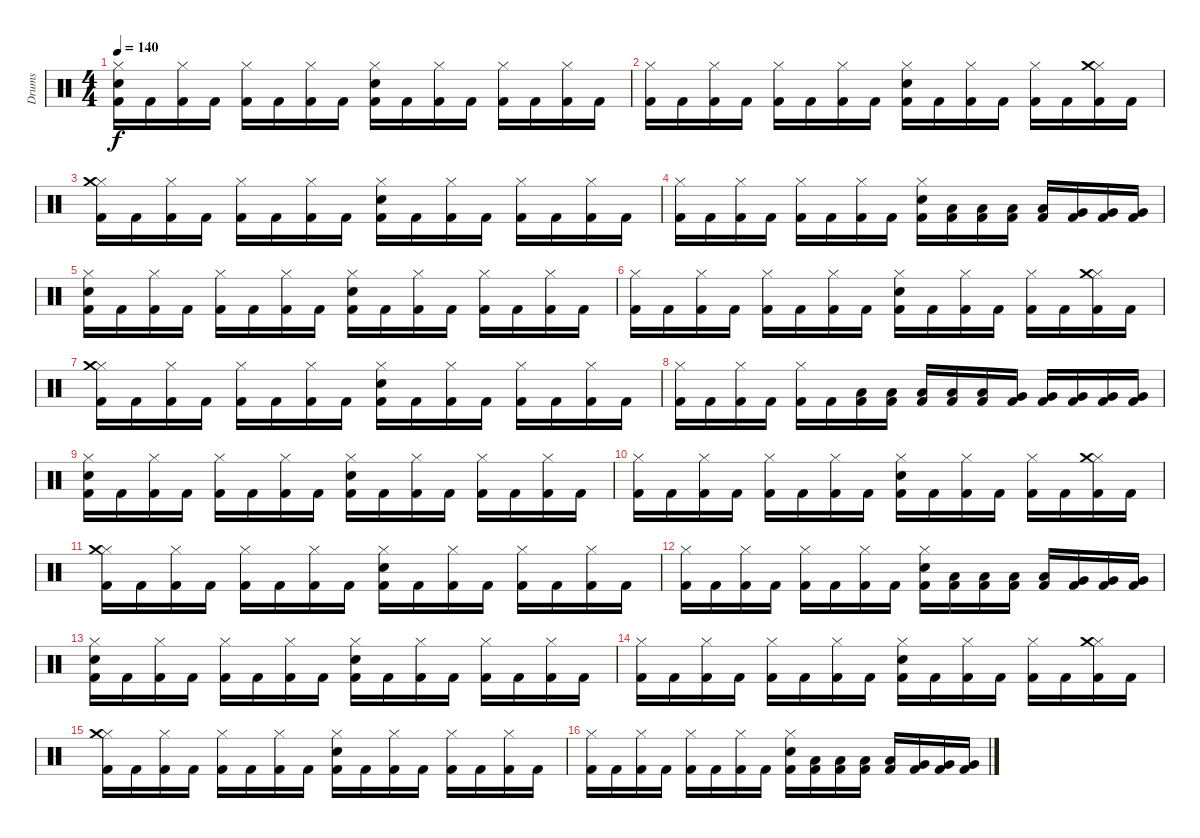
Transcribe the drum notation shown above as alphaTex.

\track ("Drums" "Drums") {instrument percussion}
\staff {score}
\articulation defaults
\ts (4 4)
\tempo 140
\clef neutral
\ks c
("Hi-Hat (closed)" "Snare (hit) 2" "Kick (hit) 2").16{dy f} "Kick (hit) 2".16 ("Hi-Hat (closed)" "Kick (hit) 2").16 "Kick (hit) 2".16 ("Hi-Hat (closed)" "Kick (hit) 2").16 "Kick (hit) 2".16 ("Hi-Hat (closed)" "Kick (hit) 2").16 "Kick (hit) 2".16 ("Hi-Hat (closed)" "Snare (hit) 2" "Kick (hit) 2").16 "Kick (hit) 2".16 ("Hi-Hat (closed)" "Kick (hit) 2").16 "Kick (hit) 2".16 ("Hi-Hat (closed)" "Kick (hit) 2").16 "Kick (hit) 2".16 ("Hi-Hat (closed)" "Kick (hit) 2").16 "Kick (hit) 2".16 |
("Hi-Hat (closed)" "Kick (hit) 2").16 "Kick (hit) 2".16 ("Hi-Hat (closed)" "Kick (hit) 2").16 "Kick (hit) 2".16 ("Hi-Hat (closed)" "Kick (hit) 2").16 "Kick (hit) 2".16 ("Hi-Hat (closed)" "Kick (hit) 2").16 "Kick (hit) 2".16 ("Hi-Hat (closed)" "Snare (hit) 2" "Kick (hit) 2").16 "Kick (hit) 2".16 ("Hi-Hat (closed)" "Kick (hit) 2").16 "Kick (hit) 2".16 ("Hi-Hat (closed)" "Kick (hit) 2").16 "Kick (hit) 2".16 ("Hi-Hat (closed)" "Crash medium (hit)" "Kick (hit) 2").16 "Kick (hit) 2".16 |
("Hi-Hat (closed)" "Crash medium (hit)" "Kick (hit) 2").16 "Kick (hit) 2".16 ("Hi-Hat (closed)" "Kick (hit) 2").16 "Kick (hit) 2".16 ("Hi-Hat (closed)" "Kick (hit) 2").16 "Kick (hit) 2".16 ("Hi-Hat (closed)" "Kick (hit) 2").16 "Kick (hit) 2".16 ("Hi-Hat (closed)" "Snare (hit) 2" "Kick (hit) 2").16 "Kick (hit) 2".16 ("Hi-Hat (closed)" "Kick (hit) 2").16 "Kick (hit) 2".16 ("Hi-Hat (closed)" "Kick (hit) 2").16 "Kick (hit) 2".16 ("Hi-Hat (closed)" "Kick (hit) 2").16 "Kick (hit) 2".16 |
("Hi-Hat (closed)" "Kick (hit) 2").16 "Kick (hit) 2".16 ("Hi-Hat (closed)" "Kick (hit) 2").16 "Kick (hit) 2".16 ("Hi-Hat (closed)" "Kick (hit) 2").16 "Kick (hit) 2".16 ("Hi-Hat (closed)" "Kick (hit) 2").16 "Kick (hit) 2".16 ("Hi-Hat (closed)" "Snare (hit) 2" "Kick (hit) 2").16 ("Low Floor Tom (hit)" "Kick (hit) 2").16 ("Low Floor Tom (hit)" "Kick (hit) 2").16 ("Low Floor Tom (hit)" "Kick (hit) 2").16 ("Low Floor Tom (hit)" "Kick (hit) 2").16 ("Very Low Tom (hit)" "Kick (hit) 2").16 ("Very Low Tom (hit)" "Kick (hit) 2").16 ("Very Low Tom (hit)" "Kick (hit) 2").16 |
("Hi-Hat (closed)" "Snare (hit) 2" "Kick (hit) 2").16 "Kick (hit) 2".16 ("Hi-Hat (closed)" "Kick (hit) 2").16 "Kick (hit) 2".16 ("Hi-Hat (closed)" "Kick (hit) 2").16 "Kick (hit) 2".16 ("Hi-Hat (closed)" "Kick (hit) 2").16 "Kick (hit) 2".16 ("Hi-Hat (closed)" "Snare (hit) 2" "Kick (hit) 2").16 "Kick (hit) 2".16 ("Hi-Hat (closed)" "Kick (hit) 2").16 "Kick (hit) 2".16 ("Hi-Hat (closed)" "Kick (hit) 2").16 "Kick (hit) 2".16 ("Hi-Hat (closed)" "Kick (hit) 2").16 "Kick (hit) 2".16 |
("Hi-Hat (closed)" "Kick (hit) 2").16 "Kick (hit) 2".16 ("Hi-Hat (closed)" "Kick (hit) 2").16 "Kick (hit) 2".16 ("Hi-Hat (closed)" "Kick (hit) 2").16 "Kick (hit) 2".16 ("Hi-Hat (closed)" "Kick (hit) 2").16 "Kick (hit) 2".16 ("Hi-Hat (closed)" "Snare (hit) 2" "Kick (hit) 2").16 "Kick (hit) 2".16 ("Hi-Hat (closed)" "Kick (hit) 2").16 "Kick (hit) 2".16 ("Hi-Hat (closed)" "Kick (hit) 2").16 "Kick (hit) 2".16 ("Hi-Hat (closed)" "Crash medium (hit)" "Kick (hit) 2").16 "Kick (hit) 2".16 |
("Hi-Hat (closed)" "Crash medium (hit)" "Kick (hit) 2").16 "Kick (hit) 2".16 ("Hi-Hat (closed)" "Kick (hit) 2").16 "Kick (hit) 2".16 ("Hi-Hat (closed)" "Kick (hit) 2").16 "Kick (hit) 2".16 ("Hi-Hat (closed)" "Kick (hit) 2").16 "Kick (hit) 2".16 ("Hi-Hat (closed)" "Snare (hit) 2" "Kick (hit) 2").16 "Kick (hit) 2".16 ("Hi-Hat (closed)" "Kick (hit) 2").16 "Kick (hit) 2".16 ("Hi-Hat (closed)" "Kick (hit) 2").16 "Kick (hit) 2".16 ("Hi-Hat (closed)" "Kick (hit) 2").16 "Kick (hit) 2".16 |
("Hi-Hat (closed)" "Kick (hit) 2").16 "Kick (hit) 2".16 ("Hi-Hat (closed)" "Kick (hit) 2").16 "Kick (hit) 2".16 ("Hi-Hat (closed)" "Kick (hit) 2").16 "Kick (hit) 2".16 ("Low Floor Tom (hit)" "Kick (hit) 2").16 ("Low Floor Tom (hit)" "Kick (hit) 2").16 ("Low Floor Tom (hit)" "Kick (hit) 2").16 ("Low Floor Tom (hit)" "Kick (hit) 2").16 ("Low Floor Tom (hit)" "Kick (hit) 2").16 ("Very Low Tom (hit)" "Kick (hit) 2").16 ("Very Low Tom (hit)" "Kick (hit) 2").16 ("Very Low Tom (hit)" "Kick (hit) 2").16 ("Very Low Tom (hit)" "Kick (hit) 2").16 ("Very Low Tom (hit)" "Kick (hit) 2").16 |
("Hi-Hat (closed)" "Snare (hit) 2" "Kick (hit) 2").16 "Kick (hit) 2".16 ("Hi-Hat (closed)" "Kick (hit) 2").16 "Kick (hit) 2".16 ("Hi-Hat (closed)" "Kick (hit) 2").16 "Kick (hit) 2".16 ("Hi-Hat (closed)" "Kick (hit) 2").16 "Kick (hit) 2".16 ("Hi-Hat (closed)" "Snare (hit) 2" "Kick (hit) 2").16 "Kick (hit) 2".16 ("Hi-Hat (closed)" "Kick (hit) 2").16 "Kick (hit) 2".16 ("Hi-Hat (closed)" "Kick (hit) 2").16 "Kick (hit) 2".16 ("Hi-Hat (closed)" "Kick (hit) 2").16 "Kick (hit) 2".16 |
("Hi-Hat (closed)" "Kick (hit) 2").16 "Kick (hit) 2".16 ("Hi-Hat (closed)" "Kick (hit) 2").16 "Kick (hit) 2".16 ("Hi-Hat (closed)" "Kick (hit) 2").16 "Kick (hit) 2".16 ("Hi-Hat (closed)" "Kick (hit) 2").16 "Kick (hit) 2".16 ("Hi-Hat (closed)" "Snare (hit) 2" "Kick (hit) 2").16 "Kick (hit) 2".16 ("Hi-Hat (closed)" "Kick (hit) 2").16 "Kick (hit) 2".16 ("Hi-Hat (closed)" "Kick (hit) 2").16 "Kick (hit) 2".16 ("Hi-Hat (closed)" "Crash medium (hit)" "Kick (hit) 2").16 "Kick (hit) 2".16 |
("Hi-Hat (closed)" "Crash medium (hit)" "Kick (hit) 2").16 "Kick (hit) 2".16 ("Hi-Hat (closed)" "Kick (hit) 2").16 "Kick (hit) 2".16 ("Hi-Hat (closed)" "Kick (hit) 2").16 "Kick (hit) 2".16 ("Hi-Hat (closed)" "Kick (hit) 2").16 "Kick (hit) 2".16 ("Hi-Hat (closed)" "Snare (hit) 2" "Kick (hit) 2").16 "Kick (hit) 2".16 ("Hi-Hat (closed)" "Kick (hit) 2").16 "Kick (hit) 2".16 ("Hi-Hat (closed)" "Kick (hit) 2").16 "Kick (hit) 2".16 ("Hi-Hat (closed)" "Kick (hit) 2").16 "Kick (hit) 2".16 |
("Hi-Hat (closed)" "Kick (hit) 2").16 "Kick (hit) 2".16 ("Hi-Hat (closed)" "Kick (hit) 2").16 "Kick (hit) 2".16 ("Hi-Hat (closed)" "Kick (hit) 2").16 "Kick (hit) 2".16 ("Hi-Hat (closed)" "Kick (hit) 2").16 "Kick (hit) 2".16 ("Hi-Hat (closed)" "Snare (hit) 2" "Kick (hit) 2").16 ("Low Floor Tom (hit)" "Kick (hit) 2").16 ("Low Floor Tom (hit)" "Kick (hit) 2").16 ("Low Floor Tom (hit)" "Kick (hit) 2").16 ("Low Floor Tom (hit)" "Kick (hit) 2").16 ("Very Low Tom (hit)" "Kick (hit) 2").16 ("Very Low Tom (hit)" "Kick (hit) 2").16 ("Very Low Tom (hit)" "Kick (hit) 2").16 |
("Hi-Hat (closed)" "Snare (hit) 2" "Kick (hit) 2").16 "Kick (hit) 2".16 ("Hi-Hat (closed)" "Kick (hit) 2").16 "Kick (hit) 2".16 ("Hi-Hat (closed)" "Kick (hit) 2").16 "Kick (hit) 2".16 ("Hi-Hat (closed)" "Kick (hit) 2").16 "Kick (hit) 2".16 ("Hi-Hat (closed)" "Snare (hit) 2" "Kick (hit) 2").16 "Kick (hit) 2".16 ("Hi-Hat (closed)" "Kick (hit) 2").16 "Kick (hit) 2".16 ("Hi-Hat (closed)" "Kick (hit) 2").16 "Kick (hit) 2".16 ("Hi-Hat (closed)" "Kick (hit) 2").16 "Kick (hit) 2".16 |
("Hi-Hat (closed)" "Kick (hit) 2").16 "Kick (hit) 2".16 ("Hi-Hat (closed)" "Kick (hit) 2").16 "Kick (hit) 2".16 ("Hi-Hat (closed)" "Kick (hit) 2").16 "Kick (hit) 2".16 ("Hi-Hat (closed)" "Kick (hit) 2").16 "Kick (hit) 2".16 ("Hi-Hat (closed)" "Snare (hit) 2" "Kick (hit) 2").16 "Kick (hit) 2".16 ("Hi-Hat (closed)" "Kick (hit) 2").16 "Kick (hit) 2".16 ("Hi-Hat (closed)" "Kick (hit) 2").16 "Kick (hit) 2".16 ("Hi-Hat (closed)" "Crash medium (hit)" "Kick (hit) 2").16 "Kick (hit) 2".16 |
("Hi-Hat (closed)" "Crash medium (hit)" "Kick (hit) 2").16 "Kick (hit) 2".16 ("Hi-Hat (closed)" "Kick (hit) 2").16 "Kick (hit) 2".16 ("Hi-Hat (closed)" "Kick (hit) 2").16 "Kick (hit) 2".16 ("Hi-Hat (closed)" "Kick (hit) 2").16 "Kick (hit) 2".16 ("Hi-Hat (closed)" "Snare (hit) 2" "Kick (hit) 2").16 "Kick (hit) 2".16 ("Hi-Hat (closed)" "Kick (hit) 2").16 "Kick (hit) 2".16 ("Hi-Hat (closed)" "Kick (hit) 2").16 "Kick (hit) 2".16 ("Hi-Hat (closed)" "Kick (hit) 2").16 "Kick (hit) 2".16 |
("Hi-Hat (closed)" "Kick (hit) 2").16 "Kick (hit) 2".16 ("Hi-Hat (closed)" "Kick (hit) 2").16 "Kick (hit) 2".16 ("Hi-Hat (closed)" "Kick (hit) 2").16 "Kick (hit) 2".16 ("Hi-Hat (closed)" "Kick (hit) 2").16 "Kick (hit) 2".16 ("Hi-Hat (closed)" "Snare (hit) 2" "Kick (hit) 2").16 ("Low Floor Tom (hit)" "Kick (hit) 2").16 ("Low Floor Tom (hit)" "Kick (hit) 2").16 ("Low Floor Tom (hit)" "Kick (hit) 2").16 ("Low Floor Tom (hit)" "Kick (hit) 2").16 ("Very Low Tom (hit)" "Kick (hit) 2").16 ("Very Low Tom (hit)" "Kick (hit) 2").16 ("Very Low Tom (hit)" "Kick (hit) 2").16
